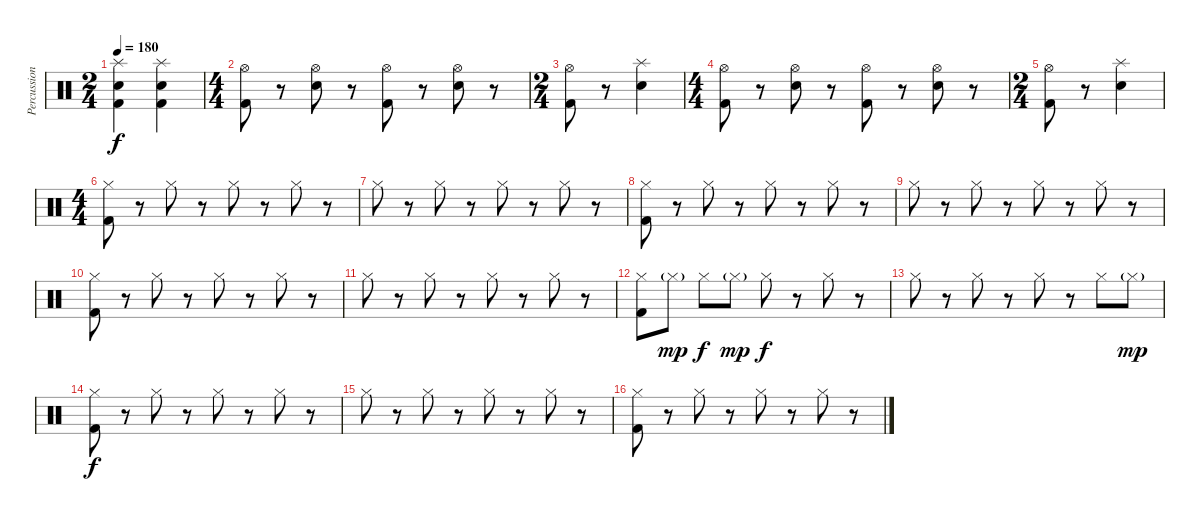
\track ("Percussion" "Percussion") {instrument percussion}
\staff {score}
\articulation defaults
\ts (2 4)
\tempo 180
\clef neutral
\ks c
("Splash (hit)" "Electric Snare (hit)" "Kick (hit) 2").4{dy f} ("Splash (hit)" "Electric Snare (hit)" "Kick (hit) 2").4 |
\ts (4 4)
("Hi-Hat (open)" "Kick (hit) 2").8 r.8 ("Hi-Hat (open)" "Electric Snare (hit)").8 r.8 ("Hi-Hat (open)" "Kick (hit) 2").8 r.8 ("Hi-Hat (open)" "Electric Snare (hit)").8 r.8 |
\ts (2 4)
("Hi-Hat (open)" "Kick (hit) 2").8 r.8 ("Splash (hit)" "Electric Snare (hit)").4 |
\ts (4 4)
("Hi-Hat (open)" "Kick (hit) 2").8 r.8 ("Hi-Hat (open)" "Electric Snare (hit)").8 r.8 ("Hi-Hat (open)" "Kick (hit) 2").8 r.8 ("Hi-Hat (open)" "Electric Snare (hit)").8 r.8 |
\ts (2 4)
("Hi-Hat (open)" "Kick (hit) 2").8 r.8 ("Splash (hit)" "Electric Snare (hit)").4 |
\ts (4 4)
("Hi-Hat (closed)" "Kick (hit) 2").8 r.8 "Hi-Hat (closed)".8 r.8 "Hi-Hat (closed)".8 r.8 "Hi-Hat (closed)".8 r.8 |
"Hi-Hat (closed)".8 r.8 "Hi-Hat (closed)".8 r.8 "Hi-Hat (closed)".8 r.8 "Hi-Hat (closed)".8 r.8 |
("Hi-Hat (closed)" "Kick (hit) 2").8 r.8 "Hi-Hat (closed)".8 r.8 "Hi-Hat (closed)".8 r.8 "Hi-Hat (closed)".8 r.8 |
"Hi-Hat (closed)".8 r.8 "Hi-Hat (closed)".8 r.8 "Hi-Hat (closed)".8 r.8 "Hi-Hat (closed)".8 r.8 |
("Hi-Hat (closed)" "Kick (hit) 2").8 r.8 "Hi-Hat (closed)".8 r.8 "Hi-Hat (closed)".8 r.8 "Hi-Hat (closed)".8 r.8 |
"Hi-Hat (closed)".8 r.8 "Hi-Hat (closed)".8 r.8 "Hi-Hat (closed)".8 r.8 "Hi-Hat (closed)".8 r.8 |
("Hi-Hat (closed)" "Kick (hit) 2").8 "Hi-Hat (closed)"{g}.8{dy mp} "Hi-Hat (closed)".8{dy f} "Hi-Hat (closed)"{g}.8{dy mp} "Hi-Hat (closed)".8{dy f} r.8 "Hi-Hat (closed)".8 r.8 |
"Hi-Hat (closed)".8 r.8 "Hi-Hat (closed)".8 r.8 "Hi-Hat (closed)".8 r.8 "Hi-Hat (closed)".8 "Hi-Hat (closed)"{g}.8{dy mp} |
("Hi-Hat (closed)" "Kick (hit) 2").8{dy f} r.8 "Hi-Hat (closed)".8 r.8 "Hi-Hat (closed)".8 r.8 "Hi-Hat (closed)".8 r.8 |
"Hi-Hat (closed)".8 r.8 "Hi-Hat (closed)".8 r.8 "Hi-Hat (closed)".8 r.8 "Hi-Hat (closed)".8 r.8 |
("Hi-Hat (closed)" "Kick (hit) 2").8 r.8 "Hi-Hat (closed)".8 r.8 "Hi-Hat (closed)".8 r.8 "Hi-Hat (closed)".8 r.8
